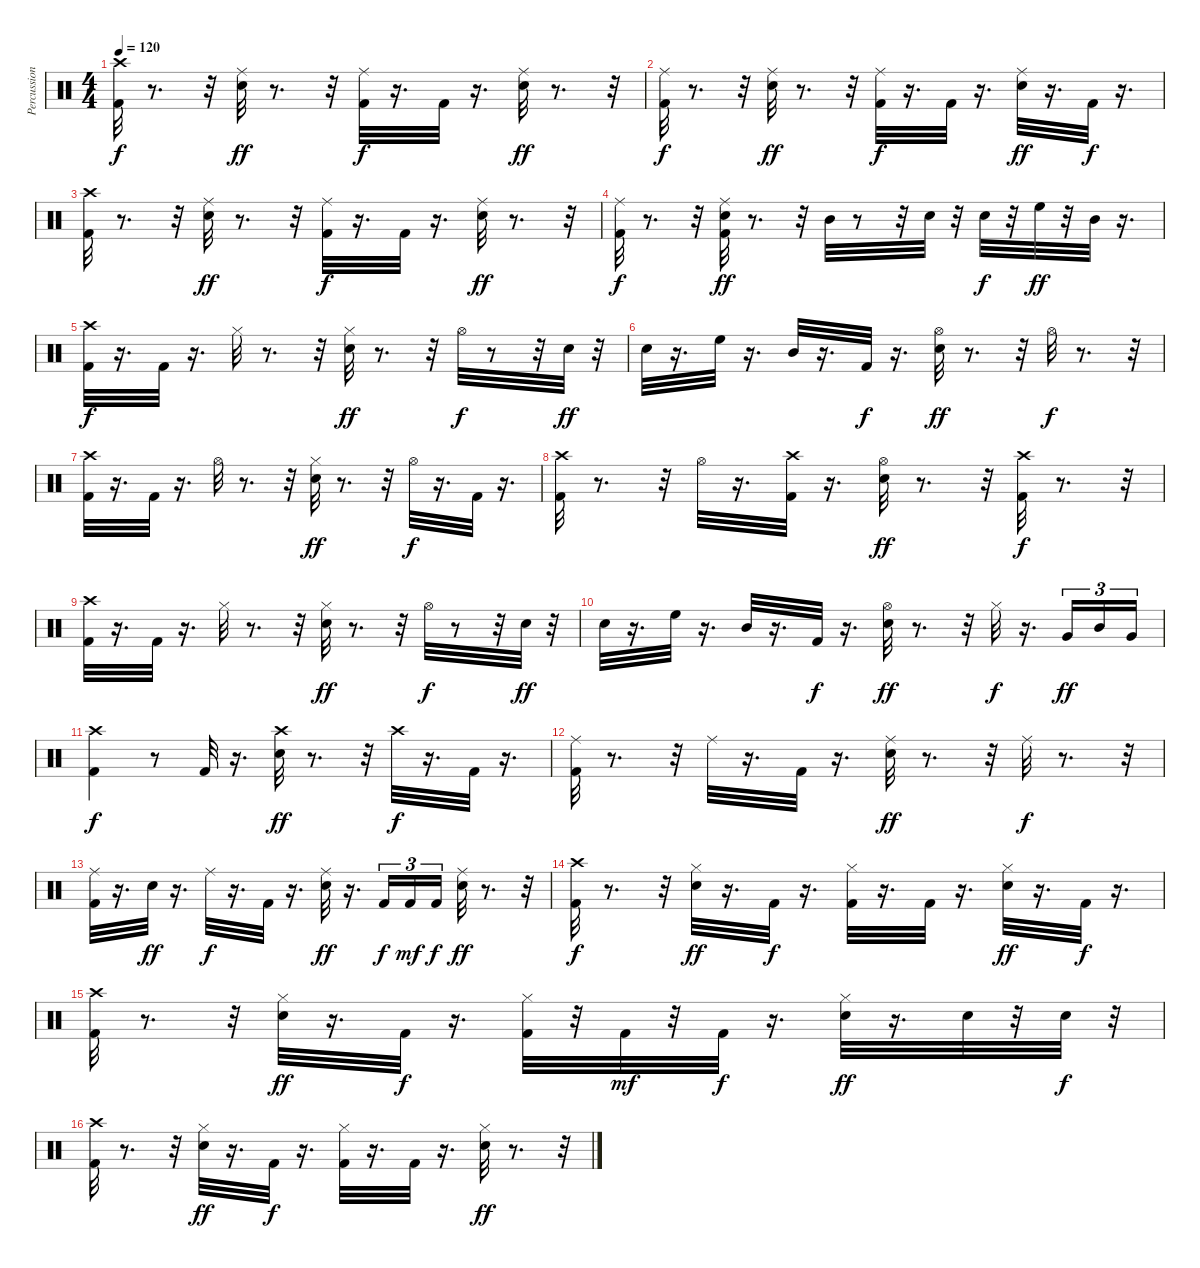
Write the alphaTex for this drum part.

\track ("Percussion" "Percussion") {instrument percussion}
\staff {score}
\articulation defaults
\ts (4 4)
\tempo 120
\clef neutral
\ks c
("Crash high (hit)" "Kick (hit) 2").32{dy f} r.8{d} r.32 ("Snare (hit) 2" "Ride (middle)").32{dy ff} r.8{d} r.32 ("Ride (middle)" "Kick (hit) 2").32{dy f} r.16{d} "Kick (hit) 2".32 r.16{d} ("Snare (hit) 2" "Ride (middle)").32{dy ff} r.8{d} r.32 |
("Ride (middle)" "Kick (hit) 2").32{dy f} r.8{d} r.32 ("Snare (hit) 2" "Ride (middle)").32{dy ff} r.8{d} r.32 ("Ride (middle)" "Kick (hit) 2").32{dy f} r.16{d} "Kick (hit) 2".32 r.16{d} ("Snare (hit) 2" "Ride (middle)").32{dy ff} r.16{d} "Kick (hit) 2".32{dy f} r.16{d} |
("Crash high (hit)" "Kick (hit) 2").32 r.8{d} r.32 ("Snare (hit) 2" "Ride (middle)").32{dy ff} r.8{d} r.32 ("Ride (middle)" "Kick (hit) 2").32{dy f} r.16{d} "Kick (hit) 2".32 r.16{d} ("Snare (hit) 2" "Ride (middle)").32{dy ff} r.8{d} r.32 |
("Ride (middle)" "Kick (hit) 2").32{dy f} r.8{d} r.32 ("Ride (middle)" "Snare (hit) 2" "Kick (hit) 2").32{dy ff} r.8{d} r.32 "Mid Tom (hit)".32 r.8 r.32 "Snare (hit) 2".32 r.32 "Snare (hit) 2".32{dy f} r.32 "High Floor Tom (hit)".32{dy ff} r.32 "Mid Tom (hit)".32 r.16{d} |
("Crash high (hit)" "Kick (hit) 2").32{dy f} r.16{d} "Kick (hit) 2".32 r.16{d} "Hi-Hat (closed)".32 r.8{d} r.32 ("Snare (hit) 2" "Hi-Hat (closed)").32{dy ff} r.8{d} r.32 "Hi-Hat (open)".32{dy f} r.8 r.32 "Snare (hit) 2".32{dy ff} r.32 |
"Snare (hit) 2".32 r.16{d} "High Floor Tom (hit)".32 r.16{d} "Mid Tom (hit)".32 r.16{d} "Kick (hit) 2".32{dy f} r.16{d} ("Hi-Hat (open)" "Snare (hit) 2").32{dy ff} r.8{d} r.32 "Hi-Hat (open)".32{dy f} r.8{d} r.32 |
("Crash high (hit)" "Kick (hit) 2").32 r.16{d} "Kick (hit) 2".32 r.16{d} "Hi-Hat (open)".32 r.8{d} r.32 ("Snare (hit) 2" "Hi-Hat (closed)").32{dy ff} r.8{d} r.32 "Hi-Hat (open)".32{dy f} r.16{d} "Kick (hit) 2".32 r.16{d} |
("Crash high (hit)" "Kick (hit) 2").32 r.8{d} r.32 "Hi-Hat (open)".32 r.16{d} ("Crash high (hit)" "Kick (hit) 2").32 r.16{d} ("Snare (hit) 2" "Hi-Hat (open)").32{dy ff} r.8{d} r.32 ("Crash high (hit)" "Kick (hit) 2").32{dy f} r.8{d} r.32 |
("Crash high (hit)" "Kick (hit) 2").32 r.16{d} "Kick (hit) 2".32 r.16{d} "Hi-Hat (closed)".32 r.8{d} r.32 ("Snare (hit) 2" "Hi-Hat (closed)").32{dy ff} r.8{d} r.32 "Hi-Hat (open)".32{dy f} r.8 r.32 "Snare (hit) 2".32{dy ff} r.32 |
"Snare (hit) 2".32 r.16{d} "High Floor Tom (hit)".32 r.16{d} "Mid Tom (hit)".32 r.16{d} "Kick (hit) 2".32{dy f} r.16{d} ("Hi-Hat (open)" "Snare (hit) 2").32{dy ff} r.8{d} r.32 "Hi-Hat (closed)".32{dy f} r.16{d} "Very Low Tom (hit)".16{tu (3 2) dy ff} "Mid Tom (hit)".16{tu (3 2)} "Very Low Tom (hit)".16{tu (3 2)} |
("Crash high (hit)" "Kick (hit) 2").4{dy f} r.8 "Kick (hit) 2".32 r.16{d} ("Snare (hit) 2" "Crash high (hit)").32{dy ff} r.8{d} r.32 "Crash high (hit)".32{dy f} r.16{d} "Kick (hit) 2".32 r.16{d} |
("Ride (middle)" "Kick (hit) 2").32 r.8{d} r.32 "Ride (middle)".32 r.16{d} "Kick (hit) 2".32 r.16{d} ("Snare (hit) 2" "Ride (middle)").32{dy ff} r.8{d} r.32 "Ride (middle)".32{dy f} r.8{d} r.32 |
("Ride (middle)" "Kick (hit) 2").32 r.16{d} "Snare (hit) 2".32{dy ff} r.16{d} "Ride (middle)".32{dy f} r.16{d} "Kick (hit) 2".32 r.16{d} ("Ride (middle)" "Snare (hit) 2").32{dy ff} r.16{d} "Kick (hit) 2".16{tu (3 2) dy f} "Kick (hit) 2".16{tu (3 2) dy mf} "Kick (hit) 2".16{tu (3 2) dy f} ("Ride (middle)" "Snare (hit) 2").32{dy ff} r.8{d} r.32 |
("Crash high (hit)" "Kick (hit) 2").32{dy f} r.8{d} r.32 ("Snare (hit) 2" "Hi-Hat (closed)").32{dy ff} r.16{d} "Kick (hit) 2".32{dy f} r.16{d} ("Hi-Hat (closed)" "Kick (hit) 2").32 r.16{d} "Kick (hit) 2".32 r.16{d} ("Snare (hit) 2" "Hi-Hat (closed)").32{dy ff} r.16{d} "Kick (hit) 2".32{dy f} r.16{d} |
("Crash high (hit)" "Kick (hit) 2").32 r.8{d} r.32 ("Snare (hit) 2" "Hi-Hat (closed)").32{dy ff} r.16{d} "Kick (hit) 2".32{dy f} r.16{d} ("Hi-Hat (closed)" "Kick (hit) 2").32 r.32 "Kick (hit) 2".32{dy mf} r.32 "Kick (hit) 2".32{dy f} r.16{d} ("Snare (hit) 2" "Hi-Hat (closed)").32{dy ff} r.16{d} "Snare (hit) 2".32 r.32 "Snare (hit) 2".32{dy f} r.32 |
("Crash high (hit)" "Kick (hit) 2").32 r.8{d} r.32 ("Snare (hit) 2" "Hi-Hat (closed)").32{dy ff} r.16{d} "Kick (hit) 2".32{dy f} r.16{d} ("Hi-Hat (closed)" "Kick (hit) 2").32 r.16{d} "Kick (hit) 2".32 r.16{d} ("Snare (hit) 2" "Hi-Hat (closed)").32{dy ff} r.8{d} r.32
